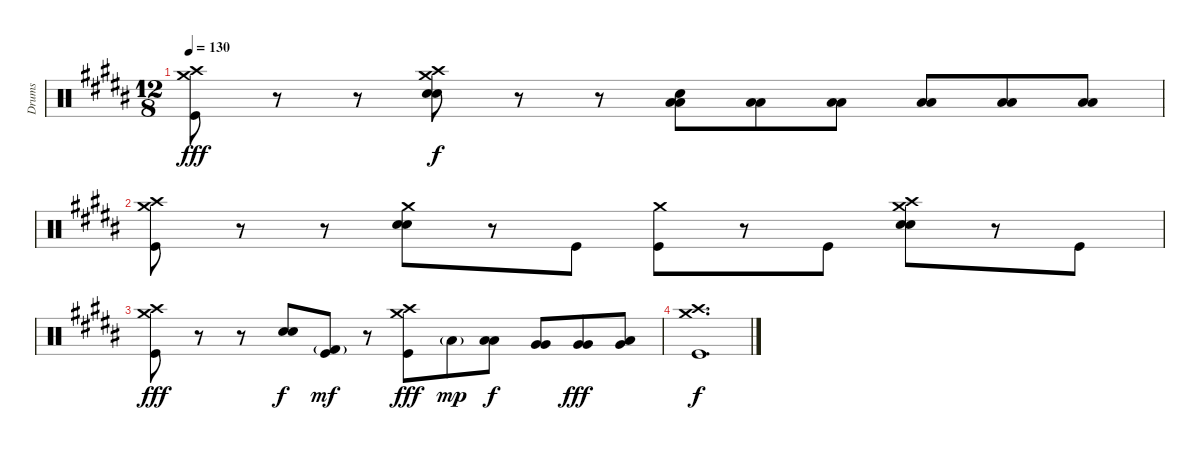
\track ("Drums" "Drums") {instrument percussion}
\staff {score}
\articulation defaults
\ts (12 8)
\tempo 130
\clef neutral
\ks b
("Crash high (hit)" "Crash medium (hit)" "Kick (hit)").8{dy fff} r.8 r.8 ("Crash high (hit)" "Crash medium (hit)" "Snare (hit) 2" "Snare (hit) 2").8{dy f} r.8 r.8 ("Snare (hit) 2" "Low Floor Tom (hit)" "Low Floor Tom (hit)").8 ("Low Floor Tom (hit)" "Low Floor Tom (hit)").8 ("Low Floor Tom (hit)" "Low Floor Tom (hit)").8 ("Low Floor Tom (hit)" "Low Floor Tom (hit)").8 ("Low Floor Tom (hit)" "Low Floor Tom (hit)").8 ("Low Floor Tom (hit)" "Low Floor Tom (hit)").8 |
("Crash high (hit)" "Crash medium (hit)" "Kick (hit)").8 r.8 r.8 ("Crash medium (hit)" "Snare (hit) 2" "Snare (hit) 2").8 r.8 "Kick (hit)".8 ("Crash medium (hit)" "Kick (hit)").8 r.8 "Kick (hit)".8 ("Crash high (hit)" "Crash medium (hit)" "Snare (hit) 2" "Snare (hit) 2").8 r.8 "Kick (hit)".8 |
("Crash high (hit)" "Crash medium (hit)" "Kick (hit)").8{dy fff} r.8 r.8 ("Snare (hit) 2" "Snare (hit) 2").8{dy f} ("Kick (hit)" "Kick (hit) 2"{g}).8{dy mf} r.8 ("Crash high (hit)" "Crash medium (hit)" "Kick (hit)").8{dy fff} "Low Floor Tom (hit)"{g}.8{dy mp} ("Low Floor Tom (hit)" "Low Floor Tom (hit)").8{dy f} ("Very Low Tom (hit)" "Very Low Tom (hit)").8 ("Very Low Tom (hit)" "Very Low Tom (hit)").8{dy fff} ("Low Tom (hit)" "Very Low Tom (hit)").8 |
("Crash medium (hit)" "Crash high (hit)" "Kick (hit)").1{d dy f}
